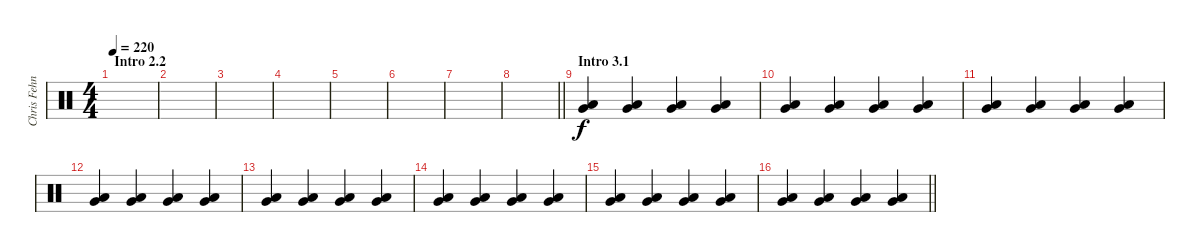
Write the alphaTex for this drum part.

\track ("Chris Fehn" "Chris Fehn") {instrument percussion}
\staff {score}
\articulation defaults
\ts (4 4)
\section ("" "Intro 2.2")
\tempo 220
\clef neutral
\ks c
|
|
|
|
|
|
|
\barLineRight lightlight
|
\section ("" "Intro 3.1")
("Very Low Tom (hit)" "Low Floor Tom (hit)").4 ("Very Low Tom (hit)" "Low Floor Tom (hit)").4 ("Very Low Tom (hit)" "Low Floor Tom (hit)").4 ("Very Low Tom (hit)" "Low Floor Tom (hit)").4 |
("Very Low Tom (hit)" "Low Floor Tom (hit)").4 ("Very Low Tom (hit)" "Low Floor Tom (hit)").4 ("Very Low Tom (hit)" "Low Floor Tom (hit)").4 ("Very Low Tom (hit)" "Low Floor Tom (hit)").4 |
("Very Low Tom (hit)" "Low Floor Tom (hit)").4 ("Very Low Tom (hit)" "Low Floor Tom (hit)").4 ("Very Low Tom (hit)" "Low Floor Tom (hit)").4 ("Very Low Tom (hit)" "Low Floor Tom (hit)").4 |
("Very Low Tom (hit)" "Low Floor Tom (hit)").4 ("Very Low Tom (hit)" "Low Floor Tom (hit)").4 ("Very Low Tom (hit)" "Low Floor Tom (hit)").4 ("Very Low Tom (hit)" "Low Floor Tom (hit)").4 |
("Very Low Tom (hit)" "Low Floor Tom (hit)").4 ("Very Low Tom (hit)" "Low Floor Tom (hit)").4 ("Very Low Tom (hit)" "Low Floor Tom (hit)").4 ("Very Low Tom (hit)" "Low Floor Tom (hit)").4 |
("Very Low Tom (hit)" "Low Floor Tom (hit)").4 ("Very Low Tom (hit)" "Low Floor Tom (hit)").4 ("Very Low Tom (hit)" "Low Floor Tom (hit)").4 ("Very Low Tom (hit)" "Low Floor Tom (hit)").4 |
("Very Low Tom (hit)" "Low Floor Tom (hit)").4 ("Very Low Tom (hit)" "Low Floor Tom (hit)").4 ("Very Low Tom (hit)" "Low Floor Tom (hit)").4 ("Very Low Tom (hit)" "Low Floor Tom (hit)").4 |
\barLineRight lightlight
("Very Low Tom (hit)" "Low Floor Tom (hit)").4 ("Very Low Tom (hit)" "Low Floor Tom (hit)").4 ("Very Low Tom (hit)" "Low Floor Tom (hit)").4 ("Very Low Tom (hit)" "Low Floor Tom (hit)").4
